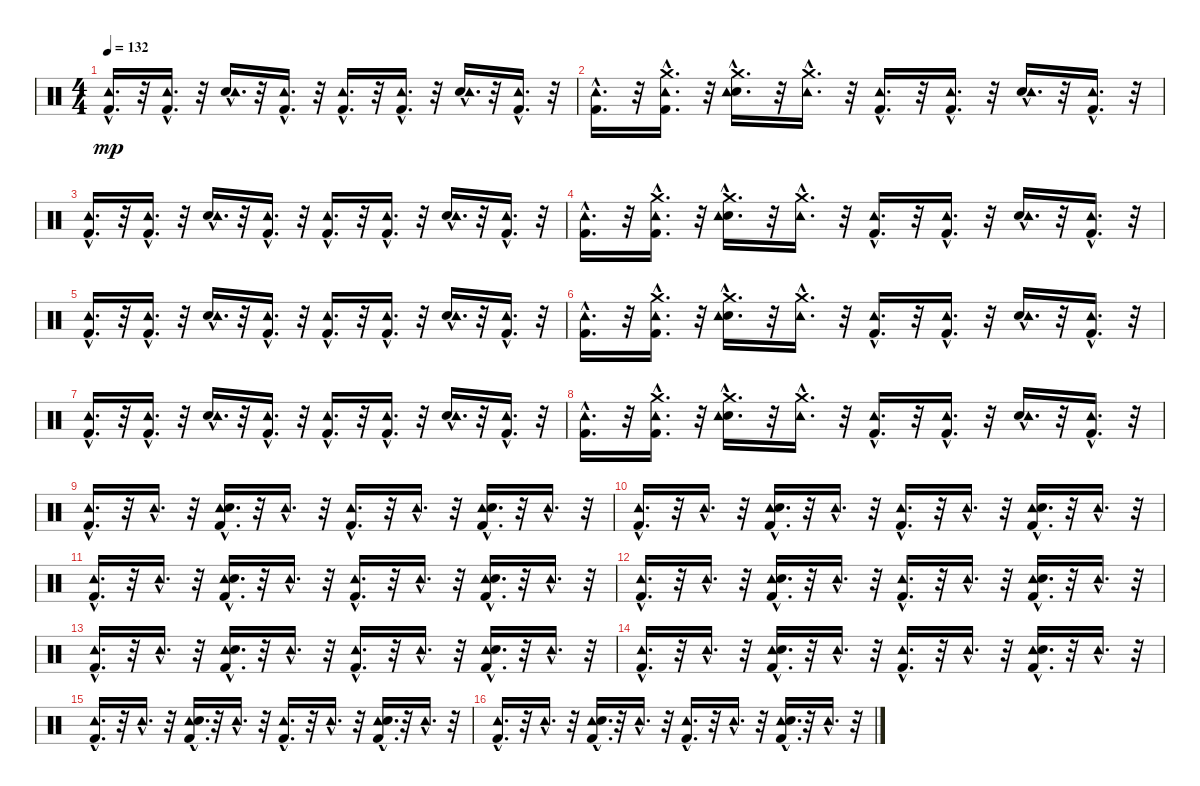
\track "" {instrument percussion}
\staff {score}
\articulation defaults
\ts (4 4)
\tempo 132
\clef neutral
\ks c
("Kick (hit) 2"{hac} "Tambourine (hit)"{hac}).16{d dy mp} r.32 ("Kick (hit) 2"{hac} "Tambourine (hit)"{hac}).16{d} r.32 ("Snare (hit) 2"{hac} "Tambourine (hit)"{hac}).16{d} r.32 ("Kick (hit) 2"{hac} "Tambourine (hit)"{hac}).16{d} r.32 ("Kick (hit) 2"{hac} "Tambourine (hit)"{hac}).16{d} r.32 ("Kick (hit) 2"{hac} "Tambourine (hit)"{hac}).16{d} r.32 ("Snare (hit) 2"{hac} "Tambourine (hit)"{hac}).16{d} r.32 ("Kick (hit) 2"{hac} "Tambourine (hit)"{hac}).16{d} r.32 |
("Kick (hit) 2"{hac} "Tambourine (hit)"{hac}).16{d} r.32 ("Crash medium (hit)"{hac} "Kick (hit) 2"{hac} "Tambourine (hit)"{hac}).16{d} r.32 ("Crash medium (hit)"{hac} "Snare (hit) 2"{hac} "Tambourine (hit)"{hac}).16{d} r.32 ("Crash medium (hit)"{hac} "Tambourine (hit)"{hac}).16{d} r.32 ("Kick (hit) 2"{hac} "Tambourine (hit)"{hac}).16{d} r.32 ("Kick (hit) 2"{hac} "Tambourine (hit)"{hac}).16{d} r.32 ("Snare (hit) 2"{hac} "Tambourine (hit)"{hac}).16{d} r.32 ("Kick (hit) 2"{hac} "Tambourine (hit)"{hac}).16{d} r.32 |
("Kick (hit) 2"{hac} "Tambourine (hit)"{hac}).16{d} r.32 ("Kick (hit) 2"{hac} "Tambourine (hit)"{hac}).16{d} r.32 ("Snare (hit) 2"{hac} "Tambourine (hit)"{hac}).16{d} r.32 ("Kick (hit) 2"{hac} "Tambourine (hit)"{hac}).16{d} r.32 ("Kick (hit) 2"{hac} "Tambourine (hit)"{hac}).16{d} r.32 ("Kick (hit) 2"{hac} "Tambourine (hit)"{hac}).16{d} r.32 ("Snare (hit) 2"{hac} "Tambourine (hit)"{hac}).16{d} r.32 ("Kick (hit) 2"{hac} "Tambourine (hit)"{hac}).16{d} r.32 |
("Kick (hit) 2"{hac} "Tambourine (hit)"{hac}).16{d} r.32 ("Crash medium (hit)"{hac} "Kick (hit) 2"{hac} "Tambourine (hit)"{hac}).16{d} r.32 ("Crash medium (hit)"{hac} "Snare (hit) 2"{hac} "Tambourine (hit)"{hac}).16{d} r.32 ("Crash medium (hit)"{hac} "Tambourine (hit)"{hac}).16{d} r.32 ("Kick (hit) 2"{hac} "Tambourine (hit)"{hac}).16{d} r.32 ("Kick (hit) 2"{hac} "Tambourine (hit)"{hac}).16{d} r.32 ("Snare (hit) 2"{hac} "Tambourine (hit)"{hac}).16{d} r.32 ("Kick (hit) 2"{hac} "Tambourine (hit)"{hac}).16{d} r.32 |
("Kick (hit) 2"{hac} "Tambourine (hit)"{hac}).16{d} r.32 ("Kick (hit) 2"{hac} "Tambourine (hit)"{hac}).16{d} r.32 ("Snare (hit) 2"{hac} "Tambourine (hit)"{hac}).16{d} r.32 ("Kick (hit) 2"{hac} "Tambourine (hit)"{hac}).16{d} r.32 ("Kick (hit) 2"{hac} "Tambourine (hit)"{hac}).16{d} r.32 ("Kick (hit) 2"{hac} "Tambourine (hit)"{hac}).16{d} r.32 ("Snare (hit) 2"{hac} "Tambourine (hit)"{hac}).16{d} r.32 ("Kick (hit) 2"{hac} "Tambourine (hit)"{hac}).16{d} r.32 |
("Kick (hit) 2"{hac} "Tambourine (hit)"{hac}).16{d} r.32 ("Crash medium (hit)"{hac} "Kick (hit) 2"{hac} "Tambourine (hit)"{hac}).16{d} r.32 ("Crash medium (hit)"{hac} "Snare (hit) 2"{hac} "Tambourine (hit)"{hac}).16{d} r.32 ("Crash medium (hit)"{hac} "Tambourine (hit)"{hac}).16{d} r.32 ("Kick (hit) 2"{hac} "Tambourine (hit)"{hac}).16{d} r.32 ("Kick (hit) 2"{hac} "Tambourine (hit)"{hac}).16{d} r.32 ("Snare (hit) 2"{hac} "Tambourine (hit)"{hac}).16{d} r.32 ("Kick (hit) 2"{hac} "Tambourine (hit)"{hac}).16{d} r.32 |
("Kick (hit) 2"{hac} "Tambourine (hit)"{hac}).16{d} r.32 ("Kick (hit) 2"{hac} "Tambourine (hit)"{hac}).16{d} r.32 ("Snare (hit) 2"{hac} "Tambourine (hit)"{hac}).16{d} r.32 ("Kick (hit) 2"{hac} "Tambourine (hit)"{hac}).16{d} r.32 ("Kick (hit) 2"{hac} "Tambourine (hit)"{hac}).16{d} r.32 ("Kick (hit) 2"{hac} "Tambourine (hit)"{hac}).16{d} r.32 ("Snare (hit) 2"{hac} "Tambourine (hit)"{hac}).16{d} r.32 ("Kick (hit) 2"{hac} "Tambourine (hit)"{hac}).16{d} r.32 |
("Kick (hit) 2"{hac} "Tambourine (hit)"{hac}).16{d} r.32 ("Crash medium (hit)"{hac} "Kick (hit) 2"{hac} "Tambourine (hit)"{hac}).16{d} r.32 ("Crash medium (hit)"{hac} "Snare (hit) 2"{hac} "Tambourine (hit)"{hac}).16{d} r.32 ("Crash medium (hit)"{hac} "Tambourine (hit)"{hac}).16{d} r.32 ("Kick (hit) 2"{hac} "Tambourine (hit)"{hac}).16{d} r.32 ("Kick (hit) 2"{hac} "Tambourine (hit)"{hac}).16{d} r.32 ("Snare (hit) 2"{hac} "Tambourine (hit)"{hac}).16{d} r.32 ("Kick (hit) 2"{hac} "Tambourine (hit)"{hac}).16{d} r.32 |
("Tambourine (hit)"{hac} "Kick (hit) 2"{hac}).16{d} r.32 "Tambourine (hit)"{hac}.16{d} r.32 ("Tambourine (hit)"{hac} "Snare (hit) 2"{hac} "Kick (hit) 2"{hac}).16{d} r.32 "Tambourine (hit)"{hac}.16{d} r.32 ("Tambourine (hit)"{hac} "Kick (hit) 2"{hac}).16{d} r.32 "Tambourine (hit)"{hac}.16{d} r.32 ("Tambourine (hit)"{hac} "Kick (hit) 2"{hac} "Snare (hit) 2"{hac}).16{d} r.32 "Tambourine (hit)"{hac}.16{d} r.32 |
("Tambourine (hit)"{hac} "Kick (hit) 2"{hac}).16{d} r.32 "Tambourine (hit)"{hac}.16{d} r.32 ("Tambourine (hit)"{hac} "Snare (hit) 2"{hac} "Kick (hit) 2"{hac}).16{d} r.32 "Tambourine (hit)"{hac}.16{d} r.32 ("Tambourine (hit)"{hac} "Kick (hit) 2"{hac}).16{d} r.32 "Tambourine (hit)"{hac}.16{d} r.32 ("Tambourine (hit)"{hac} "Kick (hit) 2"{hac} "Snare (hit) 2"{hac}).16{d} r.32 "Tambourine (hit)"{hac}.16{d} r.32 |
("Tambourine (hit)"{hac} "Kick (hit) 2"{hac}).16{d} r.32 "Tambourine (hit)"{hac}.16{d} r.32 ("Tambourine (hit)"{hac} "Snare (hit) 2"{hac} "Kick (hit) 2"{hac}).16{d} r.32 "Tambourine (hit)"{hac}.16{d} r.32 ("Tambourine (hit)"{hac} "Kick (hit) 2"{hac}).16{d} r.32 "Tambourine (hit)"{hac}.16{d} r.32 ("Tambourine (hit)"{hac} "Kick (hit) 2"{hac} "Snare (hit) 2"{hac}).16{d} r.32 "Tambourine (hit)"{hac}.16{d} r.32 |
("Tambourine (hit)"{hac} "Kick (hit) 2"{hac}).16{d} r.32 "Tambourine (hit)"{hac}.16{d} r.32 ("Tambourine (hit)"{hac} "Snare (hit) 2"{hac} "Kick (hit) 2"{hac}).16{d} r.32 "Tambourine (hit)"{hac}.16{d} r.32 ("Tambourine (hit)"{hac} "Kick (hit) 2"{hac}).16{d} r.32 "Tambourine (hit)"{hac}.16{d} r.32 ("Tambourine (hit)"{hac} "Kick (hit) 2"{hac} "Snare (hit) 2"{hac}).16{d} r.32 "Tambourine (hit)"{hac}.16{d} r.32 |
("Tambourine (hit)"{hac} "Kick (hit) 2"{hac}).16{d} r.32 "Tambourine (hit)"{hac}.16{d} r.32 ("Tambourine (hit)"{hac} "Snare (hit) 2"{hac} "Kick (hit) 2"{hac}).16{d} r.32 "Tambourine (hit)"{hac}.16{d} r.32 ("Tambourine (hit)"{hac} "Kick (hit) 2"{hac}).16{d} r.32 "Tambourine (hit)"{hac}.16{d} r.32 ("Tambourine (hit)"{hac} "Kick (hit) 2"{hac} "Snare (hit) 2"{hac}).16{d} r.32 "Tambourine (hit)"{hac}.16{d} r.32 |
("Tambourine (hit)"{hac} "Kick (hit) 2"{hac}).16{d} r.32 "Tambourine (hit)"{hac}.16{d} r.32 ("Tambourine (hit)"{hac} "Snare (hit) 2"{hac} "Kick (hit) 2"{hac}).16{d} r.32 "Tambourine (hit)"{hac}.16{d} r.32 ("Tambourine (hit)"{hac} "Kick (hit) 2"{hac}).16{d} r.32 "Tambourine (hit)"{hac}.16{d} r.32 ("Tambourine (hit)"{hac} "Kick (hit) 2"{hac} "Snare (hit) 2"{hac}).16{d} r.32 "Tambourine (hit)"{hac}.16{d} r.32 |
("Tambourine (hit)"{hac} "Kick (hit) 2"{hac}).16{d} r.32 "Tambourine (hit)"{hac}.16{d} r.32 ("Tambourine (hit)"{hac} "Snare (hit) 2"{hac} "Kick (hit) 2"{hac}).16{d} r.32 "Tambourine (hit)"{hac}.16{d} r.32 ("Tambourine (hit)"{hac} "Kick (hit) 2"{hac}).16{d} r.32 "Tambourine (hit)"{hac}.16{d} r.32 ("Tambourine (hit)"{hac} "Kick (hit) 2"{hac} "Snare (hit) 2"{hac}).16{d} r.32 "Tambourine (hit)"{hac}.16{d} r.32 |
("Tambourine (hit)"{hac} "Kick (hit) 2"{hac}).16{d} r.32 "Tambourine (hit)"{hac}.16{d} r.32 ("Tambourine (hit)"{hac} "Snare (hit) 2"{hac} "Kick (hit) 2"{hac}).16{d} r.32 "Tambourine (hit)"{hac}.16{d} r.32 ("Tambourine (hit)"{hac} "Kick (hit) 2"{hac}).16{d} r.32 "Tambourine (hit)"{hac}.16{d} r.32 ("Tambourine (hit)"{hac} "Kick (hit) 2"{hac} "Snare (hit) 2"{hac}).16{d} r.32 "Tambourine (hit)"{hac}.16{d} r.32
